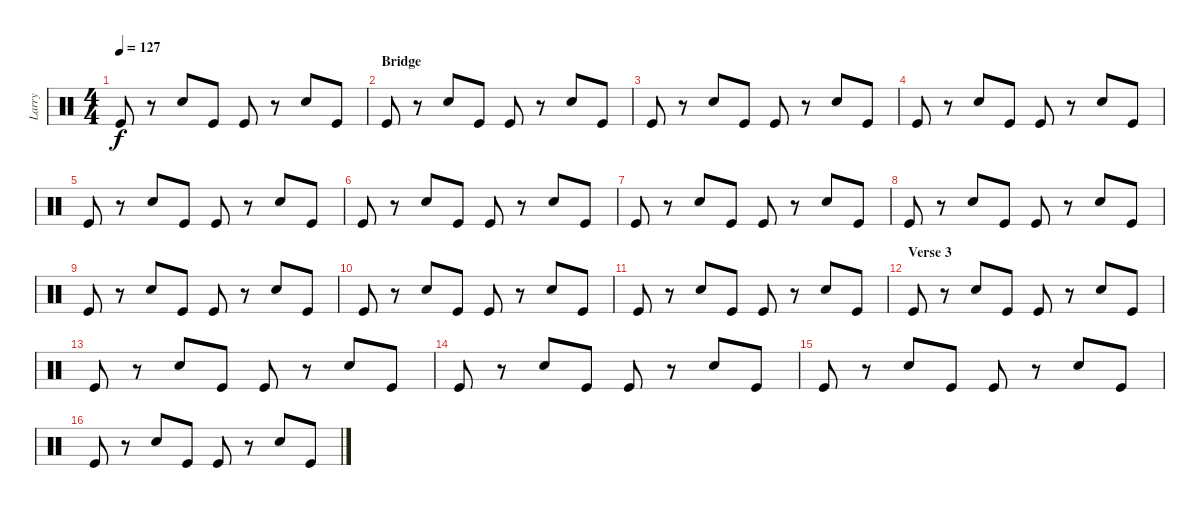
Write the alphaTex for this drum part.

\track ("Larry" "Larry") {instrument percussion}
\staff {score}
\articulation defaults
\ts (4 4)
\tempo 127
\clef neutral
\ks c "Kick (hit)".8{dy f}
r.8 "Snare (hit) 2".8 "Kick (hit)".8 "Kick (hit)".8 r.8 "Snare (hit) 2".8 "Kick (hit)".8 |
\section ("" "Bridge")
"Kick (hit)".8 r.8 "Snare (hit) 2".8 "Kick (hit)".8 "Kick (hit)".8 r.8 "Snare (hit) 2".8 "Kick (hit)".8 |
"Kick (hit)".8 r.8 "Snare (hit) 2".8 "Kick (hit)".8 "Kick (hit)".8 r.8 "Snare (hit) 2".8 "Kick (hit)".8 |
"Kick (hit)".8 r.8 "Snare (hit) 2".8 "Kick (hit)".8 "Kick (hit)".8 r.8 "Snare (hit) 2".8 "Kick (hit)".8 |
"Kick (hit)".8 r.8 "Snare (hit) 2".8 "Kick (hit)".8 "Kick (hit)".8 r.8 "Snare (hit) 2".8 "Kick (hit)".8 |
"Kick (hit)".8 r.8 "Snare (hit) 2".8 "Kick (hit)".8 "Kick (hit)".8 r.8 "Snare (hit) 2".8 "Kick (hit)".8 |
"Kick (hit)".8 r.8 "Snare (hit) 2".8 "Kick (hit)".8 "Kick (hit)".8 r.8 "Snare (hit) 2".8 "Kick (hit)".8 |
"Kick (hit)".8 r.8 "Snare (hit) 2".8 "Kick (hit)".8 "Kick (hit)".8 r.8 "Snare (hit) 2".8 "Kick (hit)".8 |
"Kick (hit)".8 r.8 "Snare (hit) 2".8 "Kick (hit)".8 "Kick (hit)".8 r.8 "Snare (hit) 2".8 "Kick (hit)".8 |
"Kick (hit)".8 r.8 "Snare (hit) 2".8 "Kick (hit)".8 "Kick (hit)".8 r.8 "Snare (hit) 2".8 "Kick (hit)".8 |
"Kick (hit)".8 r.8 "Snare (hit) 2".8 "Kick (hit)".8 "Kick (hit)".8 r.8 "Snare (hit) 2".8 "Kick (hit)".8 |
\section ("" "Verse 3")
"Kick (hit)".8 r.8 "Snare (hit) 2".8 "Kick (hit)".8 "Kick (hit)".8 r.8 "Snare (hit) 2".8 "Kick (hit)".8 |
"Kick (hit)".8 r.8 "Snare (hit) 2".8 "Kick (hit)".8 "Kick (hit)".8 r.8 "Snare (hit) 2".8 "Kick (hit)".8 |
"Kick (hit)".8 r.8 "Snare (hit) 2".8 "Kick (hit)".8 "Kick (hit)".8 r.8 "Snare (hit) 2".8 "Kick (hit)".8 |
"Kick (hit)".8 r.8 "Snare (hit) 2".8 "Kick (hit)".8 "Kick (hit)".8 r.8 "Snare (hit) 2".8 "Kick (hit)".8 |
"Kick (hit)".8 r.8 "Snare (hit) 2".8 "Kick (hit)".8 "Kick (hit)".8 r.8 "Snare (hit) 2".8 "Kick (hit)".8
